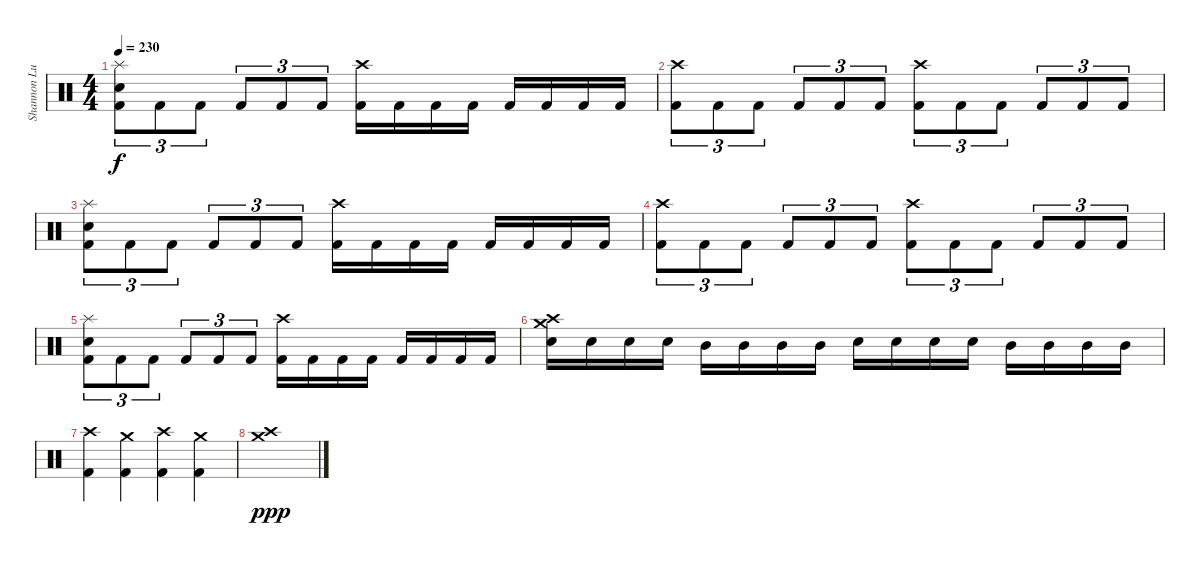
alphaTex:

\track ("Shannon Lucas" "Shannon Lu") {instrument percussion}
\staff {score}
\articulation defaults
\ts (4 4)
\tempo 230
\clef neutral
\ks c
("Splash (hit)" "Electric Snare (hit)" "Kick (hit) 2").8{tu (3 2) dy f} "Kick (hit) 2".8{tu (3 2)} "Kick (hit) 2".8{tu (3 2)} "Kick (hit) 2".8{tu (3 2)} "Kick (hit) 2".8{tu (3 2)} "Kick (hit) 2".8{tu (3 2)} ("Crash high (hit)" "Kick (hit) 2").16 "Kick (hit) 2".16 "Kick (hit) 2".16 "Kick (hit) 2".16 "Kick (hit) 2".16 "Kick (hit) 2".16 "Kick (hit) 2".16 "Kick (hit) 2".16 |
("Crash high (hit)" "Kick (hit) 2").8{tu (3 2)} "Kick (hit) 2".8{tu (3 2)} "Kick (hit) 2".8{tu (3 2)} "Kick (hit) 2".8{tu (3 2)} "Kick (hit) 2".8{tu (3 2)} "Kick (hit) 2".8{tu (3 2)} ("Crash high (hit)" "Kick (hit) 2").8{tu (3 2)} "Kick (hit) 2".8{tu (3 2)} "Kick (hit) 2".8{tu (3 2)} "Kick (hit) 2".8{tu (3 2)} "Kick (hit) 2".8{tu (3 2)} "Kick (hit) 2".8{tu (3 2)} |
("Splash (hit)" "Electric Snare (hit)" "Kick (hit) 2").8{tu (3 2)} "Kick (hit) 2".8{tu (3 2)} "Kick (hit) 2".8{tu (3 2)} "Kick (hit) 2".8{tu (3 2)} "Kick (hit) 2".8{tu (3 2)} "Kick (hit) 2".8{tu (3 2)} ("Crash high (hit)" "Kick (hit) 2").16 "Kick (hit) 2".16 "Kick (hit) 2".16 "Kick (hit) 2".16 "Kick (hit) 2".16 "Kick (hit) 2".16 "Kick (hit) 2".16 "Kick (hit) 2".16 |
("Crash high (hit)" "Kick (hit) 2").8{tu (3 2)} "Kick (hit) 2".8{tu (3 2)} "Kick (hit) 2".8{tu (3 2)} "Kick (hit) 2".8{tu (3 2)} "Kick (hit) 2".8{tu (3 2)} "Kick (hit) 2".8{tu (3 2)} ("Crash high (hit)" "Kick (hit) 2").8{tu (3 2)} "Kick (hit) 2".8{tu (3 2)} "Kick (hit) 2".8{tu (3 2)} "Kick (hit) 2".8{tu (3 2)} "Kick (hit) 2".8{tu (3 2)} "Kick (hit) 2".8{tu (3 2)} |
("Splash (hit)" "Electric Snare (hit)" "Kick (hit) 2").8{tu (3 2)} "Kick (hit) 2".8{tu (3 2)} "Kick (hit) 2".8{tu (3 2)} "Kick (hit) 2".8{tu (3 2)} "Kick (hit) 2".8{tu (3 2)} "Kick (hit) 2".8{tu (3 2)} ("Crash high (hit)" "Kick (hit) 2").16 "Kick (hit) 2".16 "Kick (hit) 2".16 "Kick (hit) 2".16 "Kick (hit) 2".16 "Kick (hit) 2".16 "Kick (hit) 2".16 "Kick (hit) 2".16 |
("Crash medium (hit)" "Crash high (hit)" "Electric Snare (hit)").16 "Electric Snare (hit)".16 "Electric Snare (hit)".16 "Electric Snare (hit)".16 "Mid Tom (hit)".16 "Mid Tom (hit)".16 "Mid Tom (hit)".16 "Mid Tom (hit)".16 "Electric Snare (hit)".16 "Electric Snare (hit)".16 "Electric Snare (hit)".16 "Electric Snare (hit)".16 "Mid Tom (hit)".16 "Mid Tom (hit)".16 "Mid Tom (hit)".16 "Mid Tom (hit)".16 |
("Crash high (hit)" "Kick (hit) 2").4 ("Crash medium (hit)" "Kick (hit) 2").4 ("Crash high (hit)" "Kick (hit) 2").4 ("Crash medium (hit)" "Kick (hit) 2").4 |
("Crash medium (hit)" "Crash high (hit)").1{dy ppp}
